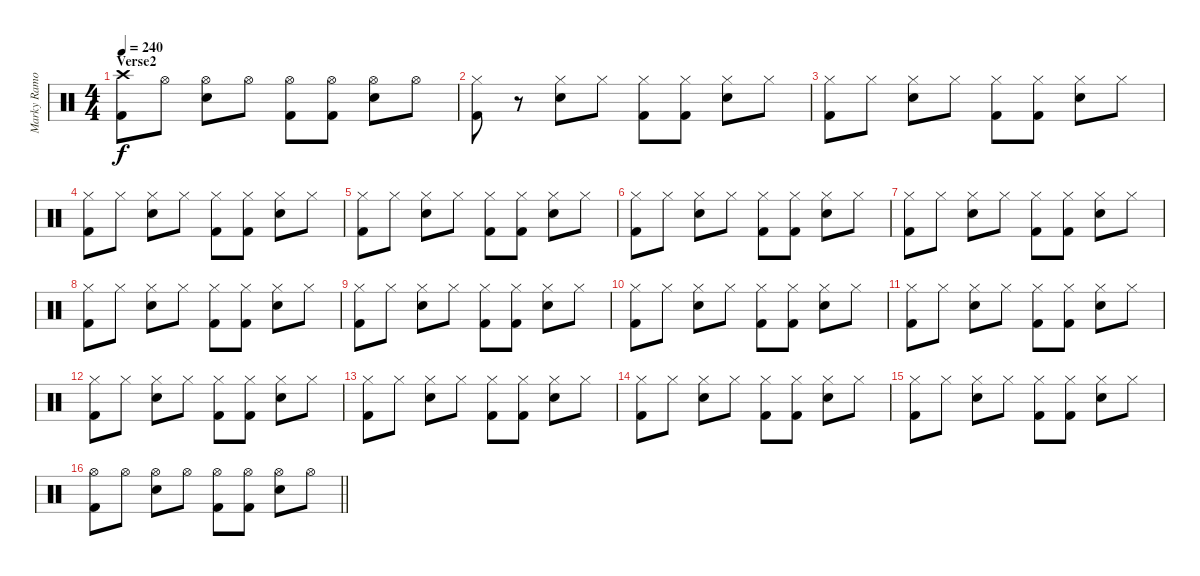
\track ("Marky Ramone" "Marky Ramo") {instrument percussion}
\staff {score}
\articulation defaults
\ts (4 4)
\section ("" "Verse2")
\tempo 240
\clef neutral
\ks c
("Kick (hit) 2" "Crash high (hit)").8{dy f} "Hi-Hat (open)".8 ("Electric Snare (hit)" "Hi-Hat (open)").8 "Hi-Hat (open)".8 ("Kick (hit) 2" "Hi-Hat (open)").8 ("Kick (hit) 2" "Hi-Hat (open)").8 ("Electric Snare (hit)" "Hi-Hat (open)").8 "Hi-Hat (open)".8 |
("Kick (hit) 2" "Hi-Hat (closed)").8 r.8 ("Electric Snare (hit)" "Hi-Hat (closed)").8 "Hi-Hat (closed)".8 ("Kick (hit) 2" "Hi-Hat (closed)").8 ("Kick (hit) 2" "Hi-Hat (closed)").8 ("Electric Snare (hit)" "Hi-Hat (closed)").8 "Hi-Hat (closed)".8 |
("Kick (hit) 2" "Hi-Hat (closed)").8 "Hi-Hat (closed)".8 ("Electric Snare (hit)" "Hi-Hat (closed)").8 "Hi-Hat (closed)".8 ("Kick (hit) 2" "Hi-Hat (closed)").8 ("Kick (hit) 2" "Hi-Hat (closed)").8 ("Electric Snare (hit)" "Hi-Hat (closed)").8 "Hi-Hat (closed)".8 |
("Kick (hit) 2" "Hi-Hat (closed)").8 "Hi-Hat (closed)".8 ("Electric Snare (hit)" "Hi-Hat (closed)").8 "Hi-Hat (closed)".8 ("Kick (hit) 2" "Hi-Hat (closed)").8 ("Kick (hit) 2" "Hi-Hat (closed)").8 ("Electric Snare (hit)" "Hi-Hat (closed)").8 "Hi-Hat (closed)".8 |
("Kick (hit) 2" "Hi-Hat (closed)").8 "Hi-Hat (closed)".8 ("Electric Snare (hit)" "Hi-Hat (closed)").8 "Hi-Hat (closed)".8 ("Kick (hit) 2" "Hi-Hat (closed)").8 ("Kick (hit) 2" "Hi-Hat (closed)").8 ("Electric Snare (hit)" "Hi-Hat (closed)").8 "Hi-Hat (closed)".8 |
("Kick (hit) 2" "Hi-Hat (closed)").8 "Hi-Hat (closed)".8 ("Electric Snare (hit)" "Hi-Hat (closed)").8 "Hi-Hat (closed)".8 ("Kick (hit) 2" "Hi-Hat (closed)").8 ("Kick (hit) 2" "Hi-Hat (closed)").8 ("Electric Snare (hit)" "Hi-Hat (closed)").8 "Hi-Hat (closed)".8 |
("Kick (hit) 2" "Hi-Hat (closed)").8 "Hi-Hat (closed)".8 ("Electric Snare (hit)" "Hi-Hat (closed)").8 "Hi-Hat (closed)".8 ("Kick (hit) 2" "Hi-Hat (closed)").8 ("Kick (hit) 2" "Hi-Hat (closed)").8 ("Electric Snare (hit)" "Hi-Hat (closed)").8 "Hi-Hat (closed)".8 |
("Kick (hit) 2" "Hi-Hat (closed)").8 "Hi-Hat (closed)".8 ("Electric Snare (hit)" "Hi-Hat (closed)").8 "Hi-Hat (closed)".8 ("Kick (hit) 2" "Hi-Hat (closed)").8 ("Kick (hit) 2" "Hi-Hat (closed)").8 ("Electric Snare (hit)" "Hi-Hat (closed)").8 "Hi-Hat (closed)".8 |
("Kick (hit) 2" "Hi-Hat (closed)").8 "Hi-Hat (closed)".8 ("Electric Snare (hit)" "Hi-Hat (closed)").8 "Hi-Hat (closed)".8 ("Kick (hit) 2" "Hi-Hat (closed)").8 ("Kick (hit) 2" "Hi-Hat (closed)").8 ("Electric Snare (hit)" "Hi-Hat (closed)").8 "Hi-Hat (closed)".8 |
("Kick (hit) 2" "Hi-Hat (closed)").8 "Hi-Hat (closed)".8 ("Electric Snare (hit)" "Hi-Hat (closed)").8 "Hi-Hat (closed)".8 ("Kick (hit) 2" "Hi-Hat (closed)").8 ("Kick (hit) 2" "Hi-Hat (closed)").8 ("Electric Snare (hit)" "Hi-Hat (closed)").8 "Hi-Hat (closed)".8 |
("Kick (hit) 2" "Hi-Hat (closed)").8 "Hi-Hat (closed)".8 ("Electric Snare (hit)" "Hi-Hat (closed)").8 "Hi-Hat (closed)".8 ("Kick (hit) 2" "Hi-Hat (closed)").8 ("Kick (hit) 2" "Hi-Hat (closed)").8 ("Electric Snare (hit)" "Hi-Hat (closed)").8 "Hi-Hat (closed)".8 |
("Kick (hit) 2" "Hi-Hat (closed)").8 "Hi-Hat (closed)".8 ("Electric Snare (hit)" "Hi-Hat (closed)").8 "Hi-Hat (closed)".8 ("Kick (hit) 2" "Hi-Hat (closed)").8 ("Kick (hit) 2" "Hi-Hat (closed)").8 ("Electric Snare (hit)" "Hi-Hat (closed)").8 "Hi-Hat (closed)".8 |
("Kick (hit) 2" "Hi-Hat (closed)").8 "Hi-Hat (closed)".8 ("Electric Snare (hit)" "Hi-Hat (closed)").8 "Hi-Hat (closed)".8 ("Kick (hit) 2" "Hi-Hat (closed)").8 ("Kick (hit) 2" "Hi-Hat (closed)").8 ("Electric Snare (hit)" "Hi-Hat (closed)").8 "Hi-Hat (closed)".8 |
("Kick (hit) 2" "Hi-Hat (closed)").8 "Hi-Hat (closed)".8 ("Electric Snare (hit)" "Hi-Hat (closed)").8 "Hi-Hat (closed)".8 ("Kick (hit) 2" "Hi-Hat (closed)").8 ("Kick (hit) 2" "Hi-Hat (closed)").8 ("Electric Snare (hit)" "Hi-Hat (closed)").8 "Hi-Hat (closed)".8 |
("Kick (hit) 2" "Hi-Hat (closed)").8 "Hi-Hat (closed)".8 ("Electric Snare (hit)" "Hi-Hat (closed)").8 "Hi-Hat (closed)".8 ("Kick (hit) 2" "Hi-Hat (closed)").8 ("Kick (hit) 2" "Hi-Hat (closed)").8 ("Electric Snare (hit)" "Hi-Hat (closed)").8 "Hi-Hat (closed)".8 |
\barLineRight lightlight
("Kick (hit) 2" "Hi-Hat (open)").8 "Hi-Hat (open)".8 ("Electric Snare (hit)" "Hi-Hat (open)").8 "Hi-Hat (open)".8 ("Kick (hit) 2" "Hi-Hat (open)").8 ("Kick (hit) 2" "Hi-Hat (open)").8 ("Electric Snare (hit)" "Hi-Hat (open)").8 "Hi-Hat (open)".8
